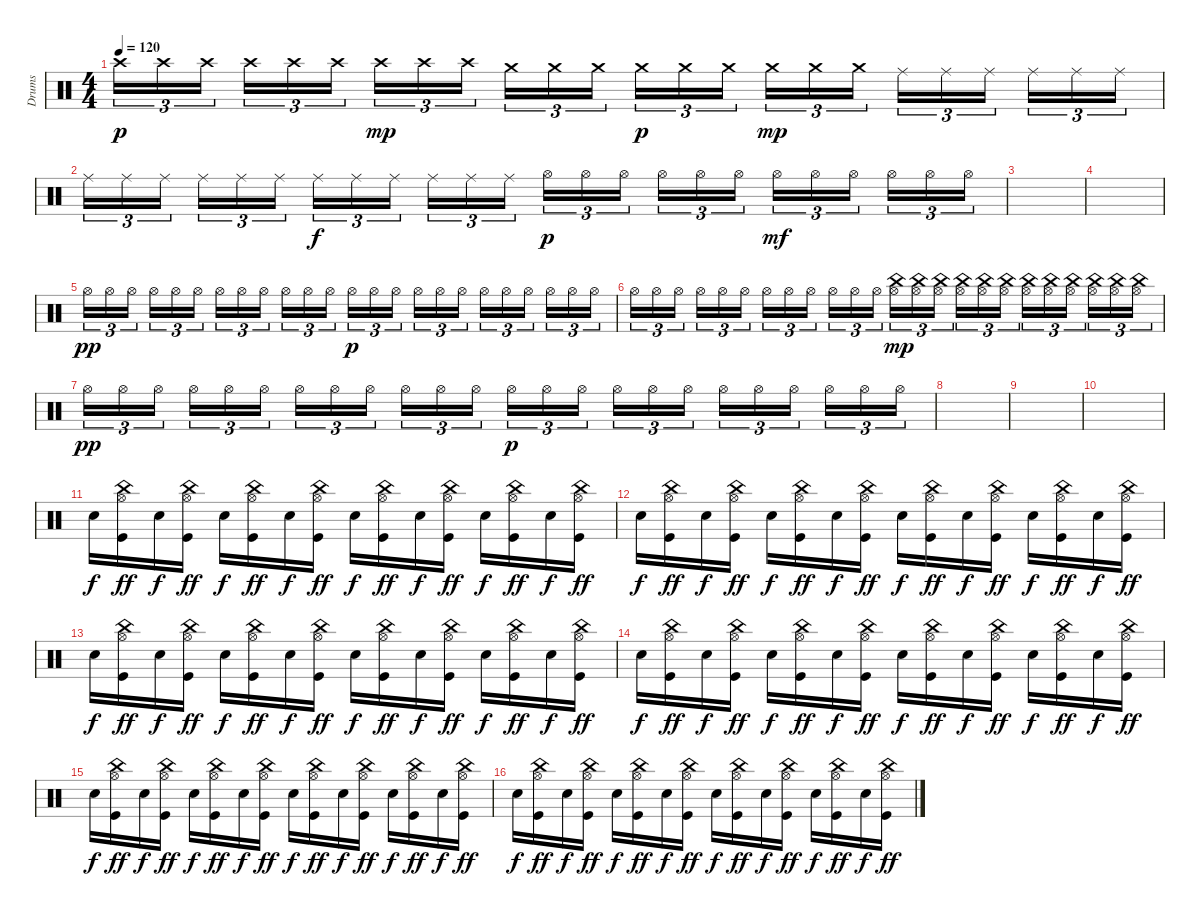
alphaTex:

\track ("Drums" "Drums") {instrument percussion}
\staff {score}
\articulation defaults
\ts (4 4)
\tempo 120
\clef neutral
\ks c "Crash high (hit)".16{tu (3 2) dy p} "Crash high (hit)".16{tu (3 2)} "Crash high (hit)".16{tu (3 2)} "Crash high (hit)".16{tu (3 2)} "Crash high (hit)".16{tu (3 2)} "Crash high (hit)".16{tu (3 2)} "Crash high (hit)".16{tu (3 2) dy mp} "Crash high (hit)".16{tu (3 2)} "Crash high (hit)".16{tu (3 2)} "Crash medium (hit)".16{tu (3 2)} "Crash medium (hit)".16{tu (3 2)} "Crash medium (hit)".16{tu (3 2)} "Crash medium (hit)".16{tu (3 2) dy p} "Crash medium (hit)".16{tu (3 2)} "Crash medium (hit)".16{tu (3 2)} "Crash medium (hit)".16{tu (3 2) dy mp} "Crash medium (hit)".16{tu (3 2)} "Crash medium (hit)".16{tu (3 2)} "Ride (middle)".16{tu (3 2)} "Ride (middle)".16{tu (3 2)} "Ride (middle)".16{tu (3 2)} "Ride (middle)".16{tu (3 2)} "Ride (middle)".16{tu (3 2)} "Ride (middle)".16{tu (3 2)}
|
"Ride (middle)".16{tu (3 2)} "Ride (middle)".16{tu (3 2)} "Ride (middle)".16{tu (3 2)} "Ride (middle)".16{tu (3 2)} "Ride (middle)".16{tu (3 2)} "Ride (middle)".16{tu (3 2)} "Ride (middle)".16{tu (3 2) dy f} "Ride (middle)".16{tu (3 2)} "Ride (middle)".16{tu (3 2)} "Ride (middle)".16{tu (3 2)} "Ride (middle)".16{tu (3 2)} "Ride (middle)".16{tu (3 2)} "Hi-Hat (open)".16{tu (3 2) dy p} "Hi-Hat (open)".16{tu (3 2)} "Hi-Hat (open)".16{tu (3 2)} "Hi-Hat (open)".16{tu (3 2)} "Hi-Hat (open)".16{tu (3 2)} "Hi-Hat (open)".16{tu (3 2)} "Hi-Hat (open)".16{tu (3 2) dy mf} "Hi-Hat (open)".16{tu (3 2)} "Hi-Hat (open)".16{tu (3 2)} "Hi-Hat (open)".16{tu (3 2)} "Hi-Hat (open)".16{tu (3 2)} "Hi-Hat (open)".16{tu (3 2)} |
|
|
"Hi-Hat (open)".16{tu (3 2) dy pp} "Hi-Hat (open)".16{tu (3 2)} "Hi-Hat (open)".16{tu (3 2)} "Hi-Hat (open)".16{tu (3 2)} "Hi-Hat (open)".16{tu (3 2)} "Hi-Hat (open)".16{tu (3 2)} "Hi-Hat (open)".16{tu (3 2)} "Hi-Hat (open)".16{tu (3 2)} "Hi-Hat (open)".16{tu (3 2)} "Hi-Hat (open)".16{tu (3 2)} "Hi-Hat (open)".16{tu (3 2)} "Hi-Hat (open)".16{tu (3 2)} "Hi-Hat (open)".16{tu (3 2) dy p} "Hi-Hat (open)".16{tu (3 2)} "Hi-Hat (open)".16{tu (3 2)} "Hi-Hat (open)".16{tu (3 2)} "Hi-Hat (open)".16{tu (3 2)} "Hi-Hat (open)".16{tu (3 2)} "Hi-Hat (open)".16{tu (3 2)} "Hi-Hat (open)".16{tu (3 2)} "Hi-Hat (open)".16{tu (3 2)} "Hi-Hat (open)".16{tu (3 2)} "Hi-Hat (open)".16{tu (3 2)} "Hi-Hat (open)".16{tu (3 2)} |
"Hi-Hat (open)".16{tu (3 2)} "Hi-Hat (open)".16{tu (3 2)} "Hi-Hat (open)".16{tu (3 2)} "Hi-Hat (open)".16{tu (3 2)} "Hi-Hat (open)".16{tu (3 2)} "Hi-Hat (open)".16{tu (3 2)} "Hi-Hat (open)".16{tu (3 2)} "Hi-Hat (open)".16{tu (3 2)} "Hi-Hat (open)".16{tu (3 2)} "Hi-Hat (open)".16{tu (3 2)} "Hi-Hat (open)".16{tu (3 2)} "Hi-Hat (open)".16{tu (3 2)} ("Hi-Hat (open)" "China (hit)").16{tu (3 2) dy mp} ("Hi-Hat (open)" "China (hit)").16{tu (3 2)} ("Hi-Hat (open)" "China (hit)").16{tu (3 2)} ("Hi-Hat (open)" "China (hit)").16{tu (3 2)} ("Hi-Hat (open)" "China (hit)").16{tu (3 2)} ("Hi-Hat (open)" "China (hit)").16{tu (3 2)} ("Hi-Hat (open)" "China (hit)").16{tu (3 2)} ("Hi-Hat (open)" "China (hit)").16{tu (3 2)} ("Hi-Hat (open)" "China (hit)").16{tu (3 2)} ("Hi-Hat (open)" "China (hit)").16{tu (3 2)} ("Hi-Hat (open)" "China (hit)").16{tu (3 2)} ("Hi-Hat (open)" "China (hit)").16{tu (3 2)} |
"Hi-Hat (open)".16{tu (3 2) dy pp} "Hi-Hat (open)".16{tu (3 2)} "Hi-Hat (open)".16{tu (3 2)} "Hi-Hat (open)".16{tu (3 2)} "Hi-Hat (open)".16{tu (3 2)} "Hi-Hat (open)".16{tu (3 2)} "Hi-Hat (open)".16{tu (3 2)} "Hi-Hat (open)".16{tu (3 2)} "Hi-Hat (open)".16{tu (3 2)} "Hi-Hat (open)".16{tu (3 2)} "Hi-Hat (open)".16{tu (3 2)} "Hi-Hat (open)".16{tu (3 2)} "Hi-Hat (open)".16{tu (3 2) dy p} "Hi-Hat (open)".16{tu (3 2)} "Hi-Hat (open)".16{tu (3 2)} "Hi-Hat (open)".16{tu (3 2)} "Hi-Hat (open)".16{tu (3 2)} "Hi-Hat (open)".16{tu (3 2)} "Hi-Hat (open)".16{tu (3 2)} "Hi-Hat (open)".16{tu (3 2)} "Hi-Hat (open)".16{tu (3 2)} "Hi-Hat (open)".16{tu (3 2)} "Hi-Hat (open)".16{tu (3 2)} "Hi-Hat (open)".16{tu (3 2)} |
|
|
|
"Electric Snare (hit)".16{dy f} ("China (hit)" "Hi-Hat (open)" "Kick (hit)").16{dy ff} "Electric Snare (hit)".16{dy f} ("China (hit)" "Hi-Hat (open)" "Kick (hit)").16{dy ff} "Electric Snare (hit)".16{dy f} ("China (hit)" "Hi-Hat (open)" "Kick (hit)").16{dy ff} "Electric Snare (hit)".16{dy f} ("China (hit)" "Hi-Hat (open)" "Kick (hit)").16{dy ff} "Electric Snare (hit)".16{dy f} ("China (hit)" "Hi-Hat (open)" "Kick (hit)").16{dy ff} "Electric Snare (hit)".16{dy f} ("China (hit)" "Hi-Hat (open)" "Kick (hit)").16{dy ff} "Electric Snare (hit)".16{dy f} ("China (hit)" "Hi-Hat (open)" "Kick (hit)").16{dy ff} "Electric Snare (hit)".16{dy f} ("China (hit)" "Hi-Hat (open)" "Kick (hit)").16{dy ff} |
"Electric Snare (hit)".16{dy f} ("China (hit)" "Hi-Hat (open)" "Kick (hit)").16{dy ff} "Electric Snare (hit)".16{dy f} ("China (hit)" "Hi-Hat (open)" "Kick (hit)").16{dy ff} "Electric Snare (hit)".16{dy f} ("China (hit)" "Hi-Hat (open)" "Kick (hit)").16{dy ff} "Electric Snare (hit)".16{dy f} ("China (hit)" "Hi-Hat (open)" "Kick (hit)").16{dy ff} "Electric Snare (hit)".16{dy f} ("China (hit)" "Hi-Hat (open)" "Kick (hit)").16{dy ff} "Electric Snare (hit)".16{dy f} ("China (hit)" "Hi-Hat (open)" "Kick (hit)").16{dy ff} "Electric Snare (hit)".16{dy f} ("China (hit)" "Hi-Hat (open)" "Kick (hit)").16{dy ff} "Electric Snare (hit)".16{dy f} ("China (hit)" "Hi-Hat (open)" "Kick (hit)").16{dy ff} |
"Electric Snare (hit)".16{dy f} ("China (hit)" "Hi-Hat (open)" "Kick (hit)").16{dy ff} "Electric Snare (hit)".16{dy f} ("China (hit)" "Hi-Hat (open)" "Kick (hit)").16{dy ff} "Electric Snare (hit)".16{dy f} ("China (hit)" "Hi-Hat (open)" "Kick (hit)").16{dy ff} "Electric Snare (hit)".16{dy f} ("China (hit)" "Hi-Hat (open)" "Kick (hit)").16{dy ff} "Electric Snare (hit)".16{dy f} ("China (hit)" "Hi-Hat (open)" "Kick (hit)").16{dy ff} "Electric Snare (hit)".16{dy f} ("China (hit)" "Hi-Hat (open)" "Kick (hit)").16{dy ff} "Electric Snare (hit)".16{dy f} ("China (hit)" "Hi-Hat (open)" "Kick (hit)").16{dy ff} "Electric Snare (hit)".16{dy f} ("China (hit)" "Hi-Hat (open)" "Kick (hit)").16{dy ff} |
"Electric Snare (hit)".16{dy f} ("China (hit)" "Hi-Hat (open)" "Kick (hit)").16{dy ff} "Electric Snare (hit)".16{dy f} ("China (hit)" "Hi-Hat (open)" "Kick (hit)").16{dy ff} "Electric Snare (hit)".16{dy f} ("China (hit)" "Hi-Hat (open)" "Kick (hit)").16{dy ff} "Electric Snare (hit)".16{dy f} ("China (hit)" "Hi-Hat (open)" "Kick (hit)").16{dy ff} "Electric Snare (hit)".16{dy f} ("China (hit)" "Hi-Hat (open)" "Kick (hit)").16{dy ff} "Electric Snare (hit)".16{dy f} ("China (hit)" "Hi-Hat (open)" "Kick (hit)").16{dy ff} "Electric Snare (hit)".16{dy f} ("China (hit)" "Hi-Hat (open)" "Kick (hit)").16{dy ff} "Electric Snare (hit)".16{dy f} ("China (hit)" "Hi-Hat (open)" "Kick (hit)").16{dy ff} |
"Electric Snare (hit)".16{dy f} ("China (hit)" "Hi-Hat (open)" "Kick (hit)").16{dy ff} "Electric Snare (hit)".16{dy f} ("China (hit)" "Hi-Hat (open)" "Kick (hit)").16{dy ff} "Electric Snare (hit)".16{dy f} ("China (hit)" "Hi-Hat (open)" "Kick (hit)").16{dy ff} "Electric Snare (hit)".16{dy f} ("China (hit)" "Hi-Hat (open)" "Kick (hit)").16{dy ff} "Electric Snare (hit)".16{dy f} ("China (hit)" "Hi-Hat (open)" "Kick (hit)").16{dy ff} "Electric Snare (hit)".16{dy f} ("China (hit)" "Hi-Hat (open)" "Kick (hit)").16{dy ff} "Electric Snare (hit)".16{dy f} ("China (hit)" "Hi-Hat (open)" "Kick (hit)").16{dy ff} "Electric Snare (hit)".16{dy f} ("China (hit)" "Hi-Hat (open)" "Kick (hit)").16{dy ff} |
"Electric Snare (hit)".16{dy f} ("China (hit)" "Hi-Hat (open)" "Kick (hit)").16{dy ff} "Electric Snare (hit)".16{dy f} ("China (hit)" "Hi-Hat (open)" "Kick (hit)").16{dy ff} "Electric Snare (hit)".16{dy f} ("China (hit)" "Hi-Hat (open)" "Kick (hit)").16{dy ff} "Electric Snare (hit)".16{dy f} ("China (hit)" "Hi-Hat (open)" "Kick (hit)").16{dy ff} "Electric Snare (hit)".16{dy f} ("China (hit)" "Hi-Hat (open)" "Kick (hit)").16{dy ff} "Electric Snare (hit)".16{dy f} ("China (hit)" "Hi-Hat (open)" "Kick (hit)").16{dy ff} "Electric Snare (hit)".16{dy f} ("China (hit)" "Hi-Hat (open)" "Kick (hit)").16{dy ff} "Electric Snare (hit)".16{dy f} ("China (hit)" "Hi-Hat (open)" "Kick (hit)").16{dy ff}
